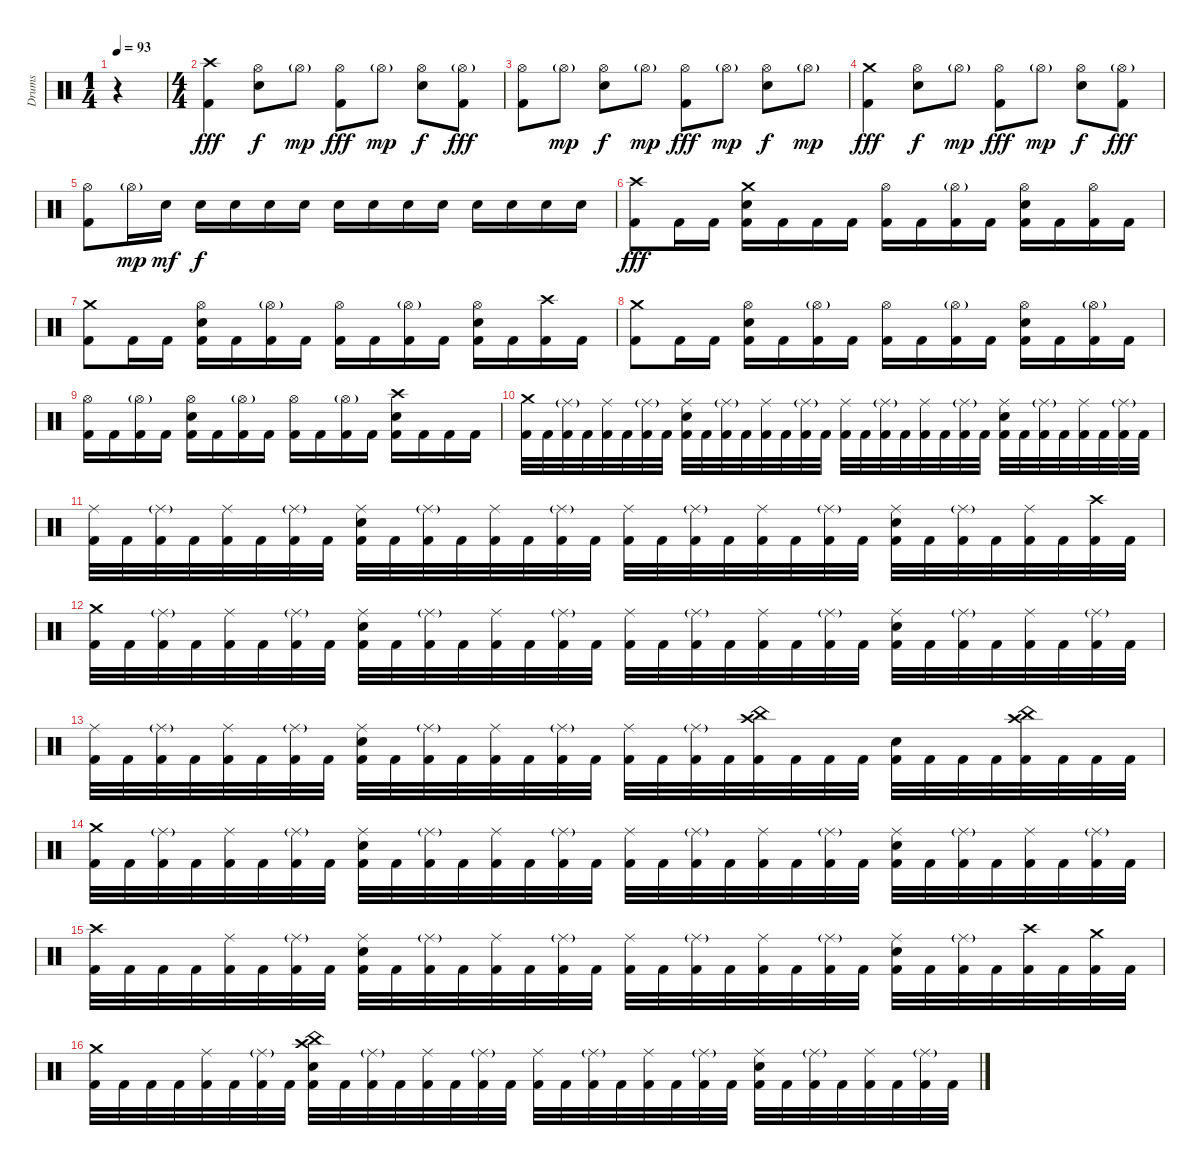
\track ("Drums" "Drums") {instrument percussion}
\staff {score}
\articulation defaults
\ts (1 4)
\tempo 93
\tempo 96
\tempo 93
\clef neutral
\ks c
r.4{dy fff} |
\ts (4 4)
("Crash high (hit)" "Kick (hit) 2").4 ("Hi-Hat (open)" "Electric Snare (hit)").8{dy f} "Hi-Hat (open)"{g}.8{dy mp} ("Hi-Hat (open)" "Kick (hit) 2").8{dy fff} "Hi-Hat (open)"{g}.8{dy mp} ("Hi-Hat (open)" "Electric Snare (hit)").8{dy f} ("Hi-Hat (open)"{g} "Kick (hit) 2").8{dy fff} |
("Hi-Hat (open)" "Kick (hit) 2").8 "Hi-Hat (open)"{g}.8{dy mp} ("Hi-Hat (open)" "Electric Snare (hit)").8{dy f} "Hi-Hat (open)"{g}.8{dy mp} ("Hi-Hat (open)" "Kick (hit) 2").8{dy fff} "Hi-Hat (open)"{g}.8{dy mp} ("Hi-Hat (open)" "Electric Snare (hit)").8{dy f} "Hi-Hat (open)"{g}.8{dy mp} |
("Crash medium (hit)" "Kick (hit) 2").4{dy fff} ("Hi-Hat (open)" "Electric Snare (hit)").8{dy f} "Hi-Hat (open)"{g}.8{dy mp} ("Hi-Hat (open)" "Kick (hit) 2").8{dy fff} "Hi-Hat (open)"{g}.8{dy mp} ("Hi-Hat (open)" "Electric Snare (hit)").8{dy f} ("Hi-Hat (open)"{g} "Kick (hit) 2").8{dy fff} |
("Hi-Hat (open)" "Kick (hit) 2").8 "Hi-Hat (open)"{g}.16{dy mp} "Electric Snare (hit)".16{dy mf} "Electric Snare (hit)".16{dy f} "Electric Snare (hit)".16 "Electric Snare (hit)".16 "Electric Snare (hit)".16 "Electric Snare (hit)".16 "Electric Snare (hit)".16 "Electric Snare (hit)".16 "Electric Snare (hit)".16 "Electric Snare (hit)".16 "Electric Snare (hit)".16 "Electric Snare (hit)".16 "Electric Snare (hit)".16 |
("Crash high (hit)" "Kick (hit) 2").8{dy fff} "Kick (hit) 2".16 "Kick (hit) 2".16 ("Crash medium (hit)" "Electric Snare (hit)" "Kick (hit) 2").16 "Kick (hit) 2".16 "Kick (hit) 2".16 "Kick (hit) 2".16 ("Hi-Hat (open)" "Kick (hit) 2").16 "Kick (hit) 2".16 ("Hi-Hat (open)"{g} "Kick (hit) 2").16 "Kick (hit) 2".16 ("Hi-Hat (open)" "Electric Snare (hit)" "Kick (hit) 2").16 "Kick (hit) 2".16 ("Hi-Hat (open)" "Kick (hit) 2").16 "Kick (hit) 2".16 |
("Crash medium (hit)" "Kick (hit) 2").8 "Kick (hit) 2".16 "Kick (hit) 2".16 ("Hi-Hat (open)" "Electric Snare (hit)" "Kick (hit) 2").16 "Kick (hit) 2".16 ("Hi-Hat (open)"{g} "Kick (hit) 2").16 "Kick (hit) 2".16 ("Hi-Hat (open)" "Kick (hit) 2").16 "Kick (hit) 2".16 ("Hi-Hat (open)"{g} "Kick (hit) 2").16 "Kick (hit) 2".16 ("Hi-Hat (open)" "Electric Snare (hit)" "Kick (hit) 2").16 "Kick (hit) 2".16 ("Crash high (hit)" "Kick (hit) 2").16 "Kick (hit) 2".16 |
("Crash medium (hit)" "Kick (hit) 2").8 "Kick (hit) 2".16 "Kick (hit) 2".16 ("Hi-Hat (open)" "Electric Snare (hit)" "Kick (hit) 2").16 "Kick (hit) 2".16 ("Hi-Hat (open)"{g} "Kick (hit) 2").16 "Kick (hit) 2".16 ("Hi-Hat (open)" "Kick (hit) 2").16 "Kick (hit) 2".16 ("Hi-Hat (open)"{g} "Kick (hit) 2").16 "Kick (hit) 2".16 ("Hi-Hat (open)" "Electric Snare (hit)" "Kick (hit) 2").16 "Kick (hit) 2".16 ("Hi-Hat (open)"{g} "Kick (hit) 2").16 "Kick (hit) 2".16 |
("Hi-Hat (open)" "Kick (hit) 2").16 "Kick (hit) 2".16 ("Hi-Hat (open)"{g} "Kick (hit) 2").16 "Kick (hit) 2".16 ("Hi-Hat (open)" "Electric Snare (hit)" "Kick (hit) 2").16 "Kick (hit) 2".16 ("Hi-Hat (open)"{g} "Kick (hit) 2").16 "Kick (hit) 2".16 ("Hi-Hat (open)" "Kick (hit) 2").16 "Kick (hit) 2".16 ("Hi-Hat (open)"{g} "Kick (hit) 2").16 "Kick (hit) 2".16 ("Crash high (hit)" "Electric Snare (hit)" "Kick (hit) 2").16 "Kick (hit) 2".16 "Kick (hit) 2".16 "Kick (hit) 2".16 |
("Crash medium (hit)" "Kick (hit) 2").32 "Kick (hit) 2".32 ("Ride (middle)"{g} "Kick (hit) 2").32 "Kick (hit) 2".32 ("Ride (middle)" "Kick (hit) 2").32 "Kick (hit) 2".32 ("Ride (middle)"{g} "Kick (hit) 2").32 "Kick (hit) 2".32 ("Ride (middle)" "Electric Snare (hit)" "Kick (hit) 2").32 "Kick (hit) 2".32 ("Ride (middle)"{g} "Kick (hit) 2").32 "Kick (hit) 2".32 ("Ride (middle)" "Kick (hit) 2").32 "Kick (hit) 2".32 ("Ride (middle)"{g} "Kick (hit) 2").32 "Kick (hit) 2".32 ("Ride (middle)" "Kick (hit) 2").32 "Kick (hit) 2".32 ("Ride (middle)"{g} "Kick (hit) 2").32 "Kick (hit) 2".32 ("Ride (middle)" "Kick (hit) 2").32 "Kick (hit) 2".32 ("Ride (middle)"{g} "Kick (hit) 2").32 "Kick (hit) 2".32 ("Ride (middle)" "Electric Snare (hit)" "Kick (hit) 2").32 "Kick (hit) 2".32 ("Ride (middle)"{g} "Kick (hit) 2").32 "Kick (hit) 2".32 ("Ride (middle)" "Kick (hit) 2").32 "Kick (hit) 2".32 ("Ride (middle)"{g} "Kick (hit) 2").32 "Kick (hit) 2".32 |
("Ride (middle)" "Kick (hit) 2").32 "Kick (hit) 2".32 ("Ride (middle)"{g} "Kick (hit) 2").32 "Kick (hit) 2".32 ("Ride (middle)" "Kick (hit) 2").32 "Kick (hit) 2".32 ("Ride (middle)"{g} "Kick (hit) 2").32 "Kick (hit) 2".32 ("Ride (middle)" "Electric Snare (hit)" "Kick (hit) 2").32 "Kick (hit) 2".32 ("Ride (middle)"{g} "Kick (hit) 2").32 "Kick (hit) 2".32 ("Ride (middle)" "Kick (hit) 2").32 "Kick (hit) 2".32 ("Ride (middle)"{g} "Kick (hit) 2").32 "Kick (hit) 2".32 ("Ride (middle)" "Kick (hit) 2").32 "Kick (hit) 2".32 ("Ride (middle)"{g} "Kick (hit) 2").32 "Kick (hit) 2".32 ("Ride (middle)" "Kick (hit) 2").32 "Kick (hit) 2".32 ("Ride (middle)"{g} "Kick (hit) 2").32 "Kick (hit) 2".32 ("Ride (middle)" "Electric Snare (hit)" "Kick (hit) 2").32 "Kick (hit) 2".32 ("Ride (middle)"{g} "Kick (hit) 2").32 "Kick (hit) 2".32 ("Ride (middle)" "Kick (hit) 2").32 "Kick (hit) 2".32 ("Crash high (hit)" "Kick (hit) 2").32 "Kick (hit) 2".32 |
("Crash medium (hit)" "Kick (hit) 2").32 "Kick (hit) 2".32 ("Ride (middle)"{g} "Kick (hit) 2").32 "Kick (hit) 2".32 ("Ride (middle)" "Kick (hit) 2").32 "Kick (hit) 2".32 ("Ride (middle)"{g} "Kick (hit) 2").32 "Kick (hit) 2".32 ("Ride (middle)" "Electric Snare (hit)" "Kick (hit) 2").32 "Kick (hit) 2".32 ("Ride (middle)"{g} "Kick (hit) 2").32 "Kick (hit) 2".32 ("Ride (middle)" "Kick (hit) 2").32 "Kick (hit) 2".32 ("Ride (middle)"{g} "Kick (hit) 2").32 "Kick (hit) 2".32 ("Ride (middle)" "Kick (hit) 2").32 "Kick (hit) 2".32 ("Ride (middle)"{g} "Kick (hit) 2").32 "Kick (hit) 2".32 ("Ride (middle)" "Kick (hit) 2").32 "Kick (hit) 2".32 ("Ride (middle)"{g} "Kick (hit) 2").32 "Kick (hit) 2".32 ("Ride (middle)" "Electric Snare (hit)" "Kick (hit) 2").32 "Kick (hit) 2".32 ("Ride (middle)"{g} "Kick (hit) 2").32 "Kick (hit) 2".32 ("Ride (middle)" "Kick (hit) 2").32 "Kick (hit) 2".32 ("Ride (middle)"{g} "Kick (hit) 2").32 "Kick (hit) 2".32 |
("Ride (middle)" "Kick (hit) 2").32 "Kick (hit) 2".32 ("Ride (middle)"{g} "Kick (hit) 2").32 "Kick (hit) 2".32 ("Ride (middle)" "Kick (hit) 2").32 "Kick (hit) 2".32 ("Ride (middle)"{g} "Kick (hit) 2").32 "Kick (hit) 2".32 ("Ride (middle)" "Electric Snare (hit)" "Kick (hit) 2").32 "Kick (hit) 2".32 ("Ride (middle)"{g} "Kick (hit) 2").32 "Kick (hit) 2".32 ("Ride (middle)" "Kick (hit) 2").32 "Kick (hit) 2".32 ("Ride (middle)"{g} "Kick (hit) 2").32 "Kick (hit) 2".32 ("Ride (middle)" "Kick (hit) 2").32 "Kick (hit) 2".32 ("Ride (middle)"{g} "Kick (hit) 2").32 "Kick (hit) 2".32 ("China (hit)" "Crash high (hit)" "Kick (hit) 2").32 "Kick (hit) 2".32 "Kick (hit) 2".32 "Kick (hit) 2".32 ("Electric Snare (hit)" "Kick (hit) 2").32 "Kick (hit) 2".32 "Kick (hit) 2".32 "Kick (hit) 2".32 ("China (hit)" "Crash high (hit)" "Kick (hit) 2").32 "Kick (hit) 2".32 "Kick (hit) 2".32 "Kick (hit) 2".32 |
("Crash medium (hit)" "Kick (hit) 2").32 "Kick (hit) 2".32 ("Ride (middle)"{g} "Kick (hit) 2").32 "Kick (hit) 2".32 ("Ride (middle)" "Kick (hit) 2").32 "Kick (hit) 2".32 ("Ride (middle)"{g} "Kick (hit) 2").32 "Kick (hit) 2".32 ("Ride (middle)" "Electric Snare (hit)" "Kick (hit) 2").32 "Kick (hit) 2".32 ("Ride (middle)"{g} "Kick (hit) 2").32 "Kick (hit) 2".32 ("Ride (middle)" "Kick (hit) 2").32 "Kick (hit) 2".32 ("Ride (middle)"{g} "Kick (hit) 2").32 "Kick (hit) 2".32 ("Ride (middle)" "Kick (hit) 2").32 "Kick (hit) 2".32 ("Ride (middle)"{g} "Kick (hit) 2").32 "Kick (hit) 2".32 ("Ride (middle)" "Kick (hit) 2").32 "Kick (hit) 2".32 ("Ride (middle)"{g} "Kick (hit) 2").32 "Kick (hit) 2".32 ("Ride (middle)" "Electric Snare (hit)" "Kick (hit) 2").32 "Kick (hit) 2".32 ("Ride (middle)"{g} "Kick (hit) 2").32 "Kick (hit) 2".32 ("Ride (middle)" "Kick (hit) 2").32 "Kick (hit) 2".32 ("Ride (middle)"{g} "Kick (hit) 2").32 "Kick (hit) 2".32 |
("Crash high (hit)" "Kick (hit) 2").32 "Kick (hit) 2".32 "Kick (hit) 2".32 "Kick (hit) 2".32 ("Ride (middle)" "Kick (hit) 2").32 "Kick (hit) 2".32 ("Ride (middle)"{g} "Kick (hit) 2").32 "Kick (hit) 2".32 ("Ride (middle)" "Electric Snare (hit)" "Kick (hit) 2").32 "Kick (hit) 2".32 ("Ride (middle)"{g} "Kick (hit) 2").32 "Kick (hit) 2".32 ("Ride (middle)" "Kick (hit) 2").32 "Kick (hit) 2".32 ("Ride (middle)"{g} "Kick (hit) 2").32 "Kick (hit) 2".32 ("Ride (middle)" "Kick (hit) 2").32 "Kick (hit) 2".32 ("Ride (middle)"{g} "Kick (hit) 2").32 "Kick (hit) 2".32 ("Ride (middle)" "Kick (hit) 2").32 "Kick (hit) 2".32 ("Ride (middle)"{g} "Kick (hit) 2").32 "Kick (hit) 2".32 ("Ride (middle)" "Electric Snare (hit)" "Kick (hit) 2").32 "Kick (hit) 2".32 ("Ride (middle)"{g} "Kick (hit) 2").32 "Kick (hit) 2".32 ("Crash high (hit)" "Kick (hit) 2").32 "Kick (hit) 2".32 ("Crash medium (hit)" "Kick (hit) 2").32 "Kick (hit) 2".32 |
("Crash medium (hit)" "Kick (hit) 2").32 "Kick (hit) 2".32 "Kick (hit) 2".32 "Kick (hit) 2".32 ("Ride (middle)" "Kick (hit) 2").32 "Kick (hit) 2".32 ("Ride (middle)"{g} "Kick (hit) 2").32 "Kick (hit) 2".32 ("China (hit)" "Crash high (hit)" "Electric Snare (hit)" "Kick (hit) 2").32 "Kick (hit) 2".32 ("Ride (middle)"{g} "Kick (hit) 2").32 "Kick (hit) 2".32 ("Ride (middle)" "Kick (hit) 2").32 "Kick (hit) 2".32 ("Ride (middle)"{g} "Kick (hit) 2").32 "Kick (hit) 2".32 ("Ride (middle)" "Kick (hit) 2").32 "Kick (hit) 2".32 ("Ride (middle)"{g} "Kick (hit) 2").32 "Kick (hit) 2".32 ("Ride (middle)" "Kick (hit) 2").32 "Kick (hit) 2".32 ("Ride (middle)"{g} "Kick (hit) 2").32 "Kick (hit) 2".32 ("Ride (middle)" "Electric Snare (hit)" "Kick (hit) 2").32 "Kick (hit) 2".32 ("Ride (middle)"{g} "Kick (hit) 2").32 "Kick (hit) 2".32 ("Ride (middle)" "Kick (hit) 2").32 "Kick (hit) 2".32 ("Ride (middle)"{g} "Kick (hit) 2").32 "Kick (hit) 2".32
